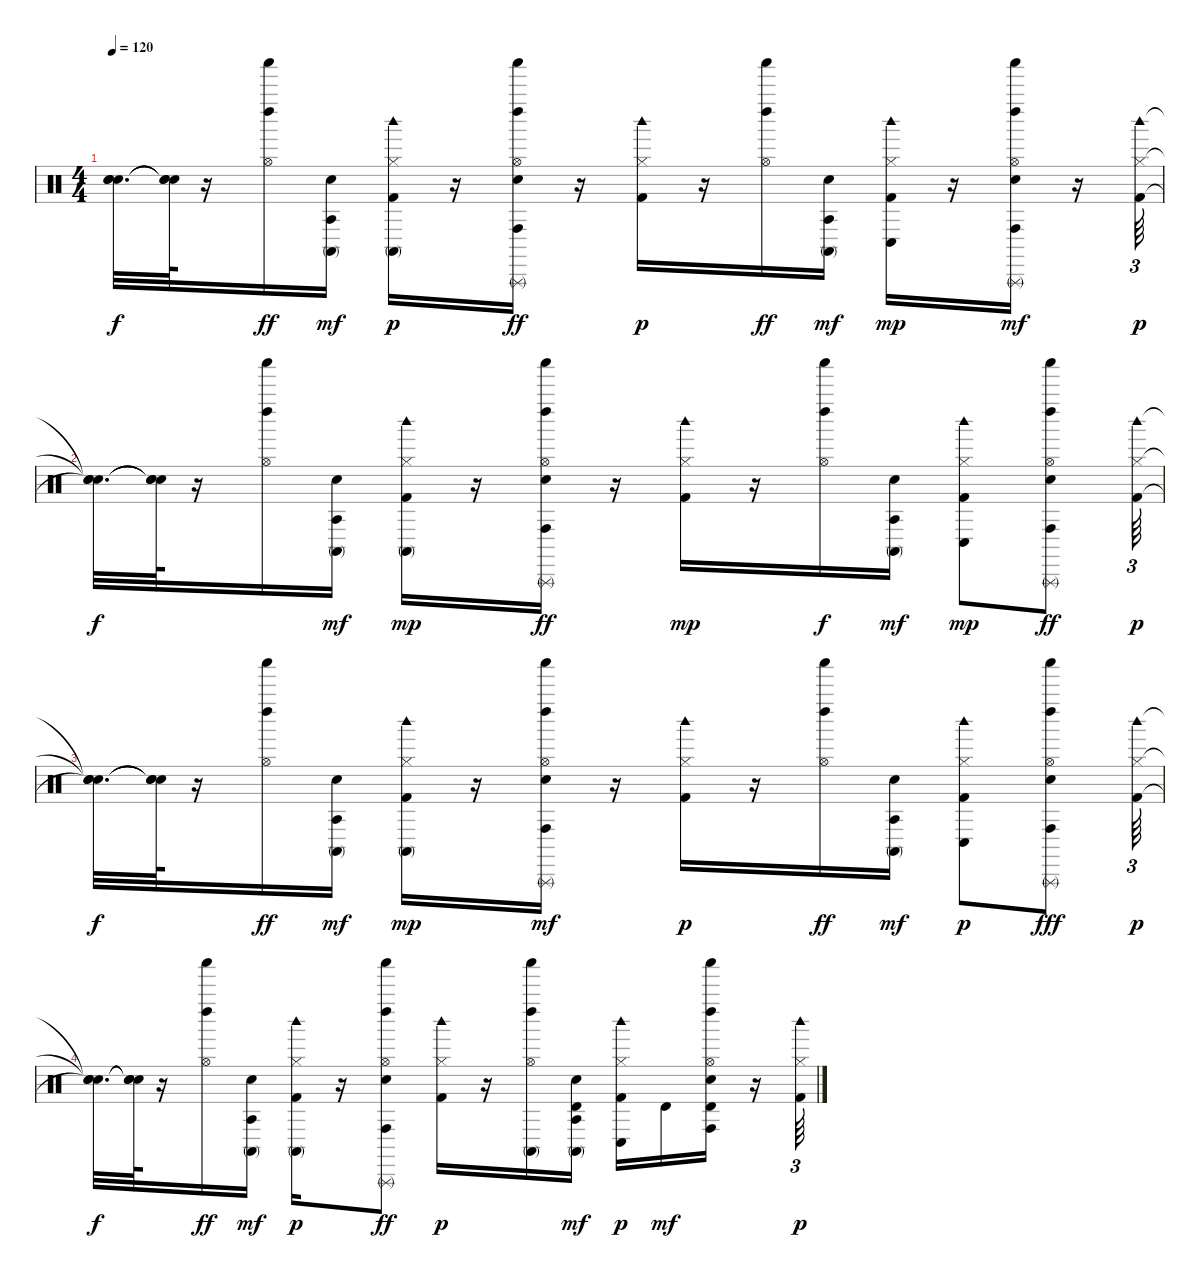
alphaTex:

\track "" {instrument percussion}
\staff {score}
\articulation defaults
\ts (4 4)
\tempo 120
\clef neutral
\ks c
("Snare (hit)"{t} "Snare (hit)"{t} "Snare (hit)"{t}).32{d dy f} ("Snare (hit)"{t} "Snare (hit)"{t} "Snare (hit)"{t}).64 r.16 ("Shaker (hit)" "Left Maraca (hit)" "Hi-Hat (open)").16{dy ff} ("Electric Snare (hit)" "Conga high (mute)" "Agogo tow (hit)").16{dy mf} ("Kick (hit) 2" "Conga high (mute)" "Hi-Hat (closed)" "Woodblock high (hit)").16{dy p} r.16 ("Shaker (hit)" "Left Maraca (hit)" "Electric Snare (hit)" "Conga high (hit)" "Hi-Hat (open)" "Triangle (rnute)").16{dy ff} r.16 ("Kick (hit) 2" "Hi-Hat (closed)" "Woodblock high (hit)").16{dy p} r.16 ("Shaker (hit)" "Left Maraca (hit)" "Hi-Hat (open)").16{dy ff} ("Electric Snare (hit)" "Conga high (mute)" "Agogo tow (hit)").16{dy mf} ("Kick (hit) 2" "Conga low (hit)" "Hi-Hat (closed)" "Woodblock high (hit)").16{dy mp} r.16 ("Shaker (hit)" "Left Maraca (hit)" "Electric Snare (hit)" "Conga high (hit)" "Hi-Hat (open)" "Triangle (rnute)").16{dy mf} r.16 ("Kick (hit) 2" "Hi-Hat (closed)" "Woodblock high (hit)").64{tu (3 2) dy p} |
("Snare (hit)"{t} "Snare (hit)"{t} "Snare (hit)"{t}).32{d dy f} ("Snare (hit)"{t} "Snare (hit)"{t} "Snare (hit)"{t}).64 r.16 ("Shaker (hit)" "Left Maraca (hit)" "Hi-Hat (open)").16 ("Electric Snare (hit)" "Conga high (mute)" "Agogo tow (hit)").16{dy mf} ("Kick (hit) 2" "Conga high (mute)" "Hi-Hat (closed)" "Woodblock high (hit)").16{dy mp} r.16 ("Shaker (hit)" "Left Maraca (hit)" "Electric Snare (hit)" "Conga high (hit)" "Hi-Hat (open)" "Triangle (rnute)").16{dy ff} r.16 ("Kick (hit) 2" "Hi-Hat (closed)" "Woodblock high (hit)").16{dy mp} r.16 ("Shaker (hit)" "Left Maraca (hit)" "Hi-Hat (open)").16{dy f} ("Electric Snare (hit)" "Conga high (mute)" "Agogo tow (hit)").16{dy mf} ("Kick (hit) 2" "Conga low (hit)" "Hi-Hat (closed)" "Woodblock high (hit)").8{dy mp} ("Shaker (hit)" "Left Maraca (hit)" "Electric Snare (hit)" "Conga high (hit)" "Hi-Hat (open)" "Triangle (rnute)").8{dy ff} ("Kick (hit) 2" "Hi-Hat (closed)" "Woodblock high (hit)").64{tu (3 2) dy p} |
("Snare (hit)"{t} "Snare (hit)"{t} "Snare (hit)"{t}).32{d dy f} ("Snare (hit)"{t} "Snare (hit)"{t} "Snare (hit)"{t}).64 r.16 ("Shaker (hit)" "Left Maraca (hit)" "Hi-Hat (open)").16{dy ff} ("Electric Snare (hit)" "Conga high (mute)" "Agogo tow (hit)").16{dy mf} ("Kick (hit) 2" "Conga high (mute)" "Hi-Hat (closed)" "Woodblock high (hit)").16{dy mp} r.16 ("Shaker (hit)" "Left Maraca (hit)" "Electric Snare (hit)" "Conga high (hit)" "Hi-Hat (open)" "Triangle (rnute)").16{dy mf} r.16 ("Kick (hit) 2" "Hi-Hat (closed)" "Woodblock high (hit)").16{dy p} r.16 ("Shaker (hit)" "Left Maraca (hit)" "Hi-Hat (open)").16{dy ff} ("Electric Snare (hit)" "Conga high (mute)" "Agogo tow (hit)").16{dy mf} ("Kick (hit) 2" "Conga low (hit)" "Hi-Hat (closed)" "Woodblock high (hit)").8{dy p} ("Shaker (hit)" "Left Maraca (hit)" "Electric Snare (hit)" "Conga high (hit)" "Hi-Hat (open)" "Triangle (rnute)").8{dy fff} ("Kick (hit) 2" "Hi-Hat (closed)" "Woodblock high (hit)").64{tu (3 2) dy p} |
("Snare (hit)"{t} "Snare (hit)"{t} "Snare (hit)"{t}).32{d dy f} ("Snare (hit)"{t} "Snare (hit)"{t} "Snare (hit)"{t}).64 r.16 ("Shaker (hit)" "Left Maraca (hit)" "Hi-Hat (open)").16{dy ff} ("Electric Snare (hit)" "Conga high (mute)" "Agogo tow (hit)").16{dy mf} ("Kick (hit) 2" "Conga high (mute)" "Hi-Hat (closed)" "Woodblock high (hit)").16{dy p} r.16 ("Shaker (hit)" "Left Maraca (hit)" "Electric Snare (hit)" "Conga high (hit)" "Hi-Hat (open)" "Triangle (rnute)").8{dy ff} ("Kick (hit) 2" "Hi-Hat (closed)" "Woodblock high (hit)").16{dy p} r.16 ("Shaker (hit)" "Left Maraca (hit)" "Conga high (mute)" "Hi-Hat (open)").16 ("Electric Snare (hit)" "Conga high (mute)" "Timbale high (hit)" "Agogo tow (hit)").16{dy mf} ("Kick (hit) 2" "Conga low (hit)" "Hi-Hat (closed)" "Woodblock high (hit)").16{dy p} "Timbale high (hit)".16{dy mf} ("Shaker (hit)" "Left Maraca (hit)" "Electric Snare (hit)" "Conga high (hit)" "Hi-Hat (open)" "Timbale high (hit)").16 r.16 ("Kick (hit) 2" "Hi-Hat (closed)" "Woodblock high (hit)").64{tu (3 2) dy p}
